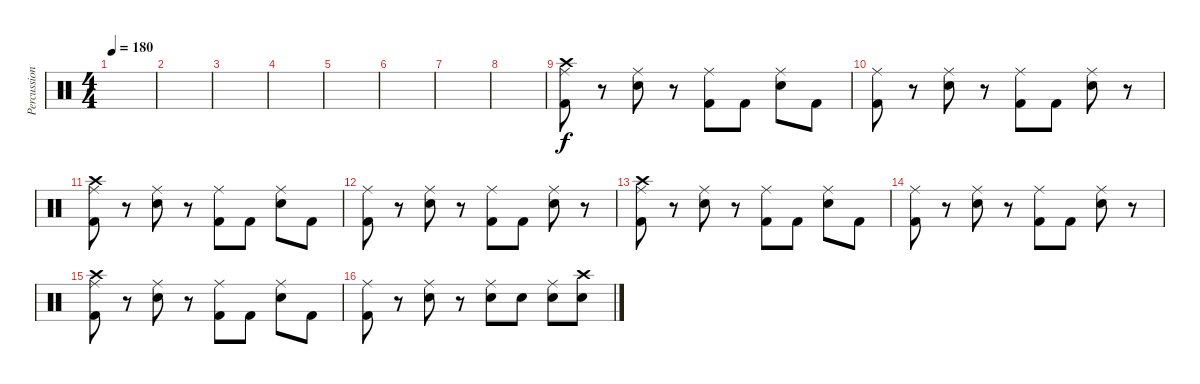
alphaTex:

\track ("Percussion" "Percussion") {instrument percussion}
\staff {score}
\articulation defaults
\ts (4 4)
\tempo 180
\clef neutral
\ks c
|
|
|
|
|
|
|
|
("Ride (middle)" "Kick (hit) 2" "Crash high (hit)").8 r.8 ("Ride (middle)" "Snare (hit) 2").8 r.8 ("Ride (middle)" "Kick (hit) 2").8 "Kick (hit) 2".8 ("Ride (middle)" "Snare (hit) 2").8 "Kick (hit) 2".8 |
("Ride (middle)" "Kick (hit) 2").8 r.8 ("Ride (middle)" "Snare (hit) 2").8 r.8 ("Ride (middle)" "Kick (hit) 2").8 "Kick (hit) 2".8 ("Ride (middle)" "Snare (hit) 2").8 r.8 |
("Ride (middle)" "Kick (hit) 2" "Crash high (hit)").8 r.8 ("Ride (middle)" "Snare (hit) 2").8 r.8 ("Ride (middle)" "Kick (hit) 2").8 "Kick (hit) 2".8 ("Ride (middle)" "Snare (hit) 2").8 "Kick (hit) 2".8 |
("Ride (middle)" "Kick (hit) 2").8 r.8 ("Ride (middle)" "Snare (hit) 2").8 r.8 ("Ride (middle)" "Kick (hit) 2").8 "Kick (hit) 2".8 ("Ride (middle)" "Snare (hit) 2").8 r.8 |
("Ride (middle)" "Kick (hit) 2" "Crash high (hit)").8 r.8 ("Ride (middle)" "Snare (hit) 2").8 r.8 ("Ride (middle)" "Kick (hit) 2").8 "Kick (hit) 2".8 ("Ride (middle)" "Snare (hit) 2").8 "Kick (hit) 2".8 |
("Ride (middle)" "Kick (hit) 2").8 r.8 ("Ride (middle)" "Snare (hit) 2").8 r.8 ("Ride (middle)" "Kick (hit) 2").8 "Kick (hit) 2".8 ("Ride (middle)" "Snare (hit) 2").8 r.8 |
("Ride (middle)" "Kick (hit) 2" "Crash high (hit)").8 r.8 ("Ride (middle)" "Snare (hit) 2").8 r.8 ("Ride (middle)" "Kick (hit) 2").8 "Kick (hit) 2".8 ("Ride (middle)" "Snare (hit) 2").8 "Kick (hit) 2".8 |
("Ride (middle)" "Kick (hit) 2").8 r.8 ("Ride (middle)" "Snare (hit) 2").8 r.8 ("Ride (middle)" "Snare (hit) 2").8 "Snare (hit) 2".8 ("Ride (middle)" "Snare (hit) 2").8 ("Crash high (hit)" "Snare (hit) 2").8
